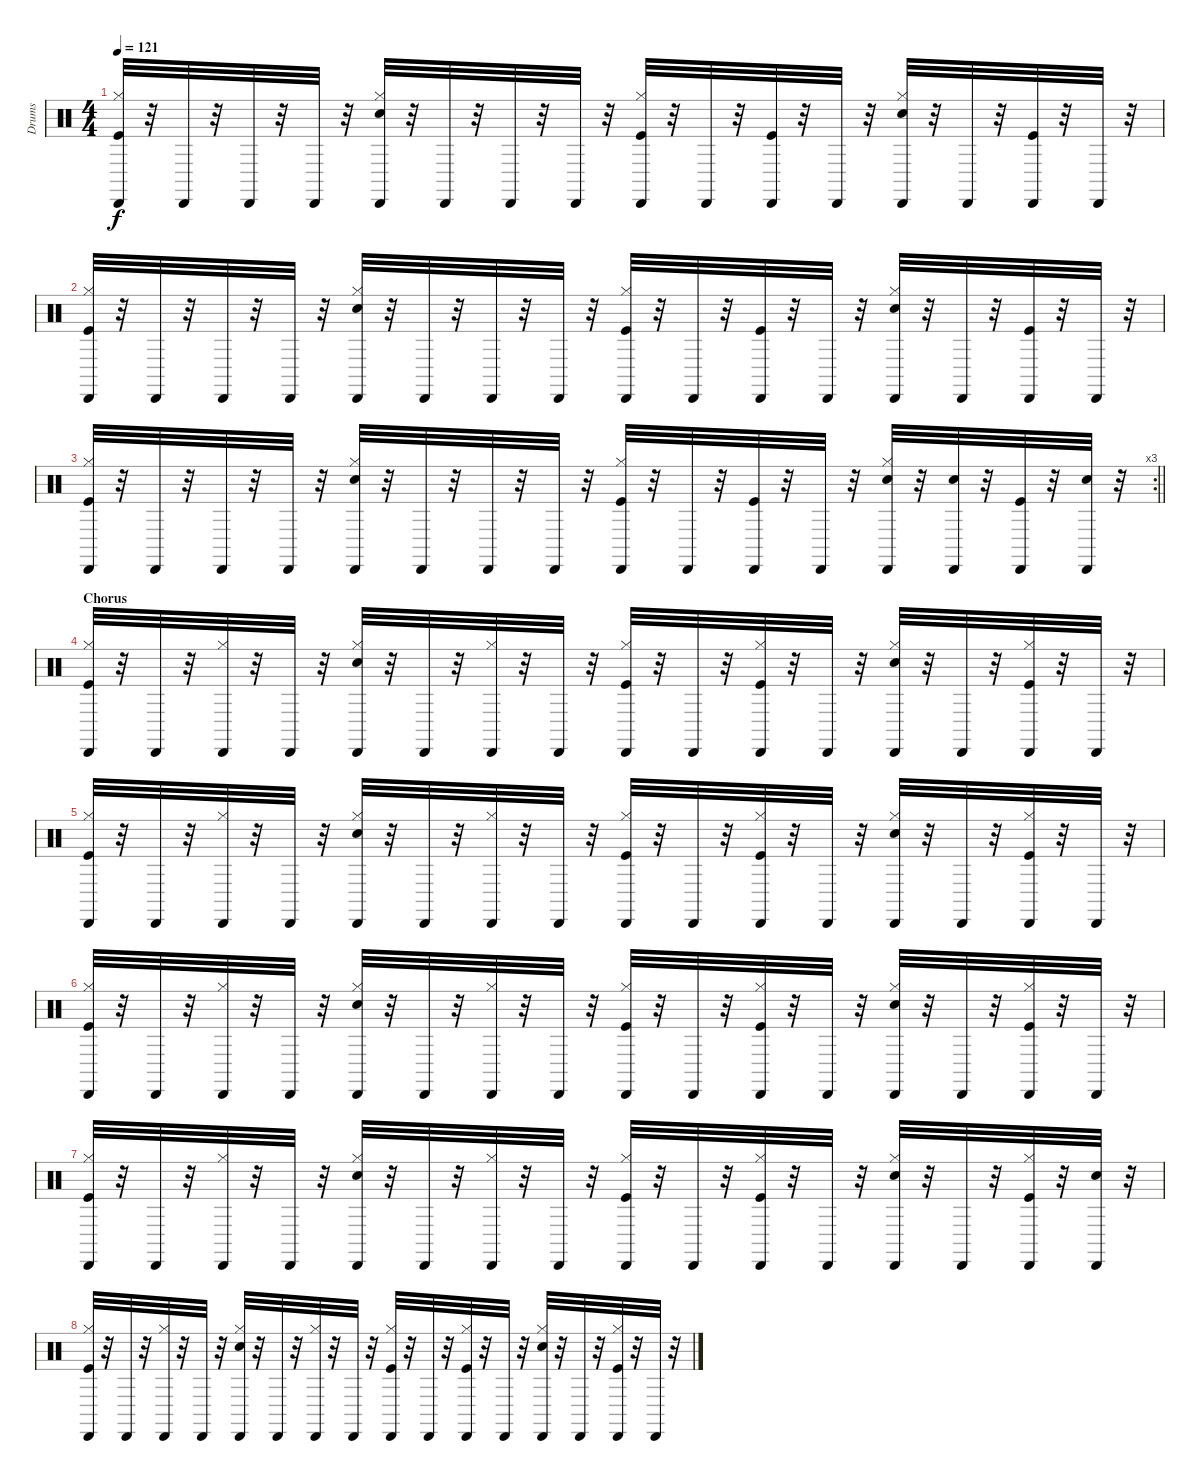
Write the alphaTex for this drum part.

\track ("Drums" "Drums") {instrument percussion}
\staff {score}
\articulation defaults
\ts (4 4)
\tempo 121
\clef neutral
\ks c
("Hi-Hat (closed)" "Kick (hit)" "Cabasa (hit)").32{dy f} r.32 "Cabasa (hit)".32 r.32 "Cabasa (hit)".32 r.32 "Cabasa (hit)".32 r.32 ("Hi-Hat (closed)" "Cabasa (hit)" "Snare (hit) 2").32 r.32 "Cabasa (hit)".32 r.32 "Cabasa (hit)".32 r.32 "Cabasa (hit)".32 r.32 ("Hi-Hat (closed)" "Kick (hit)" "Cabasa (hit)").32 r.32 "Cabasa (hit)".32 r.32 ("Cabasa (hit)" "Kick (hit)").32 r.32 "Cabasa (hit)".32 r.32 ("Hi-Hat (closed)" "Snare (hit) 2" "Cabasa (hit)").32 r.32 "Cabasa (hit)".32 r.32 ("Cabasa (hit)" "Kick (hit)").32 r.32 "Cabasa (hit)".32 r.32 |
("Hi-Hat (closed)" "Cabasa (hit)" "Kick (hit)").32 r.32 "Cabasa (hit)".32 r.32 "Cabasa (hit)".32 r.32 "Cabasa (hit)".32 r.32 ("Hi-Hat (closed)" "Snare (hit) 2" "Cabasa (hit)").32 r.32 "Cabasa (hit)".32 r.32 "Cabasa (hit)".32 r.32 "Cabasa (hit)".32 r.32 ("Hi-Hat (closed)" "Cabasa (hit)" "Kick (hit)").32 r.32 "Cabasa (hit)".32 r.32 ("Kick (hit)" "Cabasa (hit)").32 r.32 "Cabasa (hit)".32 r.32 ("Hi-Hat (closed)" "Snare (hit) 2" "Cabasa (hit)").32 r.32 "Cabasa (hit)".32 r.32 ("Kick (hit)" "Cabasa (hit)").32 r.32 "Cabasa (hit)".32 r.32 |
\rc 3
\barLineRight lightlight
("Hi-Hat (closed)" "Cabasa (hit)" "Kick (hit)").32 r.32 "Cabasa (hit)".32 r.32 "Cabasa (hit)".32 r.32 "Cabasa (hit)".32 r.32 ("Hi-Hat (closed)" "Cabasa (hit)" "Snare (hit) 2").32 r.32 "Cabasa (hit)".32 r.32 "Cabasa (hit)".32 r.32 "Cabasa (hit)".32 r.32 ("Hi-Hat (closed)" "Kick (hit)" "Cabasa (hit)").32 r.32 "Cabasa (hit)".32 r.32 ("Kick (hit)" "Cabasa (hit)").32 r.32 "Cabasa (hit)".32 r.32 ("Hi-Hat (closed)" "Snare (hit) 2" "Cabasa (hit)").32 r.32 ("Snare (hit) 2" "Cabasa (hit)").32 r.32 ("Cabasa (hit)" "Kick (hit)").32 r.32 ("Snare (hit) 2" "Cabasa (hit)").32 r.32 |
\section ("" "Chorus")
("Hi-Hat (closed)" "Cabasa (hit)" "Kick (hit)").32 r.32 "Cabasa (hit)".32 r.32 ("Hi-Hat (closed)" "Cabasa (hit)").32 r.32 "Cabasa (hit)".32 r.32 ("Hi-Hat (closed)" "Cabasa (hit)" "Snare (hit) 2").32 r.32 "Cabasa (hit)".32 r.32 ("Hi-Hat (closed)" "Cabasa (hit)").32 r.32 "Cabasa (hit)".32 r.32 ("Hi-Hat (closed)" "Cabasa (hit)" "Kick (hit)").32 r.32 "Cabasa (hit)".32 r.32 ("Hi-Hat (closed)" "Cabasa (hit)" "Kick (hit)").32 r.32 "Cabasa (hit)".32 r.32 ("Hi-Hat (closed)" "Snare (hit) 2" "Cabasa (hit)").32 r.32 "Cabasa (hit)".32 r.32 ("Hi-Hat (closed)" "Cabasa (hit)" "Kick (hit)").32 r.32 "Cabasa (hit)".32 r.32 |
("Hi-Hat (closed)" "Cabasa (hit)" "Kick (hit)").32 r.32 "Cabasa (hit)".32 r.32 ("Hi-Hat (closed)" "Cabasa (hit)").32 r.32 "Cabasa (hit)".32 r.32 ("Hi-Hat (closed)" "Snare (hit) 2" "Cabasa (hit)").32 r.32 "Cabasa (hit)".32 r.32 ("Hi-Hat (closed)" "Cabasa (hit)").32 r.32 "Cabasa (hit)".32 r.32 ("Hi-Hat (closed)" "Kick (hit)" "Cabasa (hit)").32 r.32 "Cabasa (hit)".32 r.32 ("Hi-Hat (closed)" "Kick (hit)" "Cabasa (hit)").32 r.32 "Cabasa (hit)".32 r.32 ("Hi-Hat (closed)" "Snare (hit) 2" "Cabasa (hit)").32 r.32 "Cabasa (hit)".32 r.32 ("Hi-Hat (closed)" "Cabasa (hit)" "Kick (hit)").32 r.32 "Cabasa (hit)".32 r.32 |
("Hi-Hat (closed)" "Cabasa (hit)" "Kick (hit)").32 r.32 "Cabasa (hit)".32 r.32 ("Hi-Hat (closed)" "Cabasa (hit)").32 r.32 "Cabasa (hit)".32 r.32 ("Hi-Hat (closed)" "Snare (hit) 2" "Cabasa (hit)").32 r.32 "Cabasa (hit)".32 r.32 ("Hi-Hat (closed)" "Cabasa (hit)").32 r.32 "Cabasa (hit)".32 r.32 ("Hi-Hat (closed)" "Kick (hit)" "Cabasa (hit)").32 r.32 "Cabasa (hit)".32 r.32 ("Hi-Hat (closed)" "Kick (hit)" "Cabasa (hit)").32 r.32 "Cabasa (hit)".32 r.32 ("Hi-Hat (closed)" "Snare (hit) 2" "Cabasa (hit)").32 r.32 "Cabasa (hit)".32 r.32 ("Hi-Hat (closed)" "Cabasa (hit)" "Kick (hit)").32 r.32 "Cabasa (hit)".32 r.32 |
("Hi-Hat (closed)" "Kick (hit)" "Cabasa (hit)").32 r.32 "Cabasa (hit)".32 r.32 ("Hi-Hat (closed)" "Cabasa (hit)").32 r.32 "Cabasa (hit)".32 r.32 ("Hi-Hat (closed)" "Cabasa (hit)" "Snare (hit) 2").32 r.32 "Cabasa (hit)".32 r.32 ("Hi-Hat (closed)" "Cabasa (hit)").32 r.32 "Cabasa (hit)".32 r.32 ("Hi-Hat (closed)" "Kick (hit)" "Cabasa (hit)").32 r.32 "Cabasa (hit)".32 r.32 ("Hi-Hat (closed)" "Cabasa (hit)" "Kick (hit)").32 r.32 "Cabasa (hit)".32 r.32 ("Hi-Hat (closed)" "Snare (hit) 2" "Cabasa (hit)").32 r.32 "Cabasa (hit)".32 r.32 ("Hi-Hat (closed)" "Cabasa (hit)" "Kick (hit)").32 r.32 ("Snare (hit) 2" "Cabasa (hit)").32 r.32 |
("Hi-Hat (closed)" "Cabasa (hit)" "Kick (hit)").32 r.32 "Cabasa (hit)".32 r.32 ("Hi-Hat (closed)" "Cabasa (hit)").32 r.32 "Cabasa (hit)".32 r.32 ("Hi-Hat (closed)" "Snare (hit) 2" "Cabasa (hit)").32 r.32 "Cabasa (hit)".32 r.32 ("Hi-Hat (closed)" "Cabasa (hit)").32 r.32 "Cabasa (hit)".32 r.32 ("Hi-Hat (closed)" "Cabasa (hit)" "Kick (hit)").32 r.32 "Cabasa (hit)".32 r.32 ("Hi-Hat (closed)" "Kick (hit)" "Cabasa (hit)").32 r.32 "Cabasa (hit)".32 r.32 ("Hi-Hat (closed)" "Snare (hit) 2" "Cabasa (hit)").32 r.32 "Cabasa (hit)".32 r.32 ("Hi-Hat (closed)" "Cabasa (hit)" "Kick (hit)").32 r.32 "Cabasa (hit)".32 r.32
